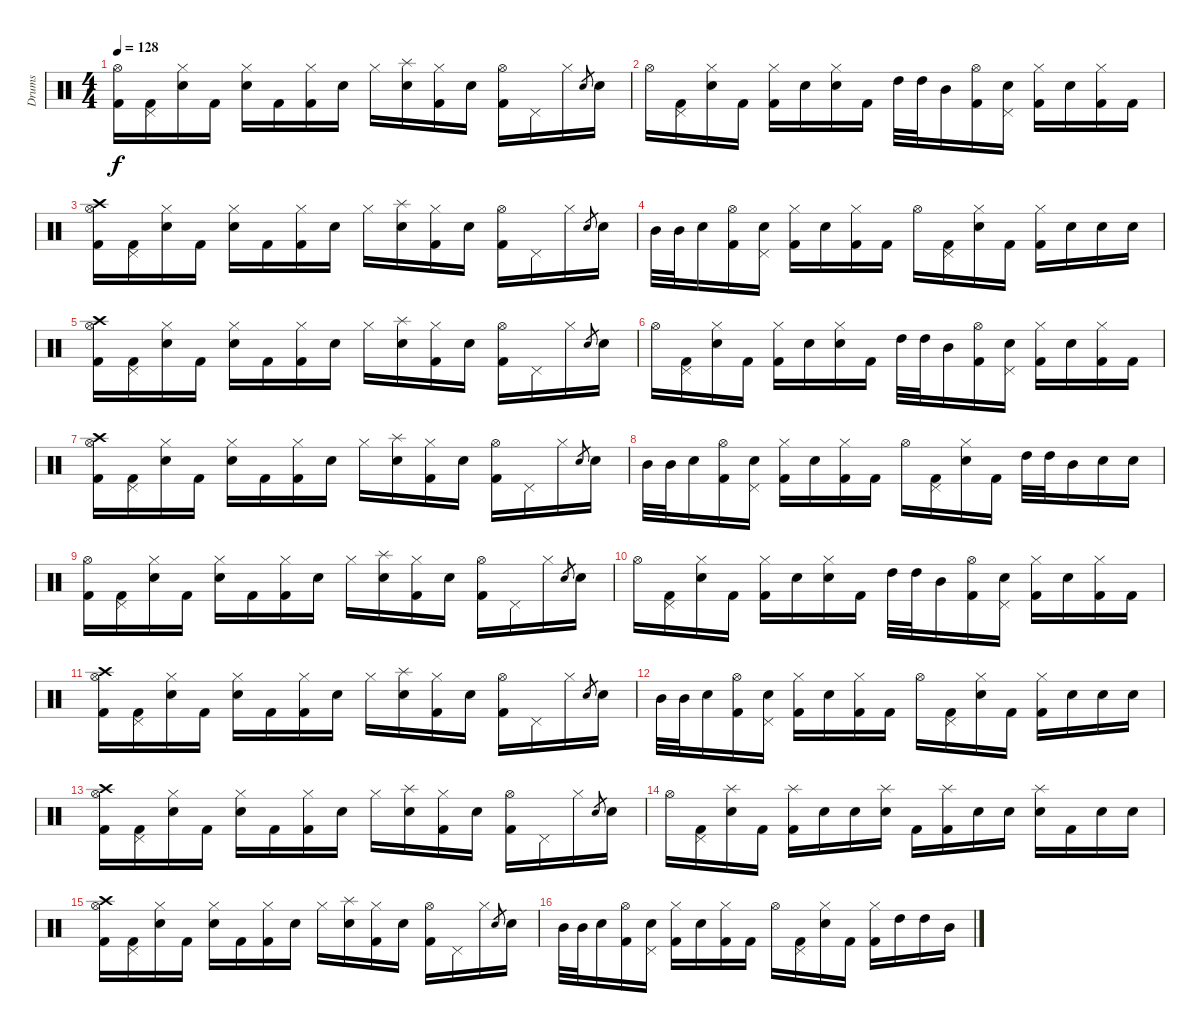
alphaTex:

\track ("Drums" "Drums") {instrument percussion}
\staff {score}
\articulation defaults
\ts (4 4)
\tempo 128
\clef neutral
\ks c
("Hi-Hat (open)" "Kick (hit) 2").16{dy f volume 3 balance 10} ("Pedal Hi-Hat (hit)" "Kick (hit) 2").16 ("Hi-Hat (closed)" "Electric Snare (hit)").16 "Kick (hit) 2".16 ("Hi-Hat (closed)" "Electric Snare (hit)").16 "Kick (hit) 2".16 ("Hi-Hat (closed)" "Kick (hit) 2").16 "Electric Snare (hit)".16 "Hi-Hat (closed)".16 ("Splash (hit)" "Electric Snare (hit)").16 ("Hi-Hat (closed)" "Kick (hit) 2").16{balance 3} "Electric Snare (hit)".16 ("Hi-Hat (open)" "Kick (hit) 2").16 "Pedal Hi-Hat (hit)".16 "Hi-Hat (closed)".16 "Electric Snare (hit)"{h}.8{gr} "Electric Snare (hit)".16 |
"Hi-Hat (open)".16{volume 1 balance 13} ("Pedal Hi-Hat (hit)" "Kick (hit) 2").16 ("Hi-Hat (closed)" "Electric Snare (hit)").16 "Kick (hit) 2".16 ("Hi-Hat (closed)" "Kick (hit) 2").16 "Electric Snare (hit)".16 ("Hi-Hat (closed)" "Electric Snare (hit)").16 "Kick (hit) 2".16 "High Tom (hit)".32 "High Tom (hit)".32 "Mid Tom (hit)".16 ("Hi-Hat (open)" "Kick (hit) 2").16 ("Pedal Hi-Hat (hit)" "Electric Snare (hit)").16 ("Hi-Hat (closed)" "Kick (hit) 2").16 "Electric Snare (hit)".16 ("Hi-Hat (closed)" "Kick (hit) 2").16 "Kick (hit) 2".16 |
("Crash high (hit)" "Hi-Hat (open)" "Kick (hit) 2").16{volume 4} ("Pedal Hi-Hat (hit)" "Kick (hit) 2").16 ("Hi-Hat (closed)" "Electric Snare (hit)").16 "Kick (hit) 2".16 ("Hi-Hat (closed)" "Electric Snare (hit)").16 "Kick (hit) 2".16 ("Hi-Hat (closed)" "Kick (hit) 2").16 "Electric Snare (hit)".16 "Hi-Hat (closed)".16{volume 4 balance 4} ("Splash (hit)" "Electric Snare (hit)").16 ("Hi-Hat (closed)" "Kick (hit) 2").16 "Electric Snare (hit)".16 ("Hi-Hat (open)" "Kick (hit) 2").16 "Pedal Hi-Hat (hit)".16 "Hi-Hat (closed)".16 "Electric Snare (hit)"{h}.8{gr} "Electric Snare (hit)".16 |
"Mid Tom (hit)".32 "Mid Tom (hit)".32 "Electric Snare (hit)".16 ("Hi-Hat (open)" "Kick (hit) 2").16 ("Pedal Hi-Hat (hit)" "Electric Snare (hit)").16 ("Hi-Hat (closed)" "Kick (hit) 2").16 "Electric Snare (hit)".16 ("Hi-Hat (closed)" "Kick (hit) 2").16 "Kick (hit) 2".16 "Hi-Hat (open)".16 ("Pedal Hi-Hat (hit)" "Kick (hit) 2").16 ("Hi-Hat (closed)" "Electric Snare (hit)").16 "Kick (hit) 2".16 ("Hi-Hat (closed)" "Kick (hit) 2").16{volume 4 balance 8} "Electric Snare (hit)".16 "Electric Snare (hit)".16 "Electric Snare (hit)".16 |
("Crash high (hit)" "Hi-Hat (open)" "Kick (hit) 2").16 ("Pedal Hi-Hat (hit)" "Kick (hit) 2").16 ("Hi-Hat (closed)" "Electric Snare (hit)").16 "Kick (hit) 2".16 ("Hi-Hat (closed)" "Electric Snare (hit)").16 "Kick (hit) 2".16 ("Hi-Hat (closed)" "Kick (hit) 2").16 "Electric Snare (hit)".16 "Hi-Hat (closed)".16 ("Splash (hit)" "Electric Snare (hit)").16{volume 1} ("Hi-Hat (closed)" "Kick (hit) 2").16 "Electric Snare (hit)".16 ("Hi-Hat (open)" "Kick (hit) 2").16 "Pedal Hi-Hat (hit)".16 "Hi-Hat (closed)".16 "Electric Snare (hit)"{h}.8{gr} "Electric Snare (hit)".16 |
"Hi-Hat (open)".16 ("Pedal Hi-Hat (hit)" "Kick (hit) 2").16 ("Hi-Hat (closed)" "Electric Snare (hit)").16{volume 3 balance 13} "Kick (hit) 2".16 ("Hi-Hat (closed)" "Kick (hit) 2").16 "Electric Snare (hit)".16 ("Hi-Hat (closed)" "Electric Snare (hit)").16 "Kick (hit) 2".16 "High Tom (hit)".32 "High Tom (hit)".32 "Mid Tom (hit)".16 ("Hi-Hat (open)" "Kick (hit) 2").16{volume 0 balance 2} ("Pedal Hi-Hat (hit)" "Electric Snare (hit)").16 ("Hi-Hat (closed)" "Kick (hit) 2").16 "Electric Snare (hit)".16 ("Hi-Hat (closed)" "Kick (hit) 2").16 "Kick (hit) 2".16 |
("Crash high (hit)" "Hi-Hat (open)" "Kick (hit) 2").16 ("Pedal Hi-Hat (hit)" "Kick (hit) 2").16 ("Hi-Hat (closed)" "Electric Snare (hit)").16 "Kick (hit) 2".16 ("Hi-Hat (closed)" "Electric Snare (hit)").16 "Kick (hit) 2".16 ("Hi-Hat (closed)" "Kick (hit) 2").16 "Electric Snare (hit)".16 "Hi-Hat (closed)".16 ("Splash (hit)" "Electric Snare (hit)").16 ("Hi-Hat (closed)" "Kick (hit) 2").16 "Electric Snare (hit)".16 ("Hi-Hat (open)" "Kick (hit) 2").16 "Pedal Hi-Hat (hit)".16 "Hi-Hat (closed)".16 "Electric Snare (hit)"{h}.8{gr} "Electric Snare (hit)".16 |
"Mid Tom (hit)".32 "Mid Tom (hit)".32 "Electric Snare (hit)".16 ("Hi-Hat (open)" "Kick (hit) 2").16 ("Pedal Hi-Hat (hit)" "Electric Snare (hit)").16{volume 9 balance 8} ("Hi-Hat (closed)" "Kick (hit) 2").16 "Electric Snare (hit)".16 ("Hi-Hat (closed)" "Kick (hit) 2").16 "Kick (hit) 2".16 "Hi-Hat (open)".16 ("Pedal Hi-Hat (hit)" "Kick (hit) 2").16 ("Hi-Hat (closed)" "Electric Snare (hit)").16 "Kick (hit) 2".16 "High Tom (hit)".32 "High Tom (hit)".32 "Mid Tom (hit)".16 "Electric Snare (hit)".16 "Electric Snare (hit)".16 |
("Hi-Hat (open)" "Kick (hit) 2").16 ("Pedal Hi-Hat (hit)" "Kick (hit) 2").16 ("Hi-Hat (closed)" "Electric Snare (hit)").16 "Kick (hit) 2".16 ("Hi-Hat (closed)" "Electric Snare (hit)").16 "Kick (hit) 2".16 ("Hi-Hat (closed)" "Kick (hit) 2").16 "Electric Snare (hit)".16 "Hi-Hat (closed)".16 ("Splash (hit)" "Electric Snare (hit)").16 ("Hi-Hat (closed)" "Kick (hit) 2").16 "Electric Snare (hit)".16 ("Hi-Hat (open)" "Kick (hit) 2").16 "Pedal Hi-Hat (hit)".16 "Hi-Hat (closed)".16 "Electric Snare (hit)"{h}.8{gr} "Electric Snare (hit)".16 |
"Hi-Hat (open)".16 ("Pedal Hi-Hat (hit)" "Kick (hit) 2").16 ("Hi-Hat (closed)" "Electric Snare (hit)").16 "Kick (hit) 2".16 ("Hi-Hat (closed)" "Kick (hit) 2").16 "Electric Snare (hit)".16 ("Hi-Hat (closed)" "Electric Snare (hit)").16 "Kick (hit) 2".16 "High Tom (hit)".32 "High Tom (hit)".32 "Mid Tom (hit)".16 ("Hi-Hat (open)" "Kick (hit) 2").16 ("Pedal Hi-Hat (hit)" "Electric Snare (hit)").16 ("Hi-Hat (closed)" "Kick (hit) 2").16 "Electric Snare (hit)".16 ("Hi-Hat (closed)" "Kick (hit) 2").16 "Kick (hit) 2".16 |
("Crash high (hit)" "Hi-Hat (open)" "Kick (hit) 2").16 ("Pedal Hi-Hat (hit)" "Kick (hit) 2").16 ("Hi-Hat (closed)" "Electric Snare (hit)").16 "Kick (hit) 2".16 ("Hi-Hat (closed)" "Electric Snare (hit)").16 "Kick (hit) 2".16 ("Hi-Hat (closed)" "Kick (hit) 2").16 "Electric Snare (hit)".16 "Hi-Hat (closed)".16 ("Splash (hit)" "Electric Snare (hit)").16 ("Hi-Hat (closed)" "Kick (hit) 2").16 "Electric Snare (hit)".16 ("Hi-Hat (open)" "Kick (hit) 2").16 "Pedal Hi-Hat (hit)".16 "Hi-Hat (closed)".16 "Electric Snare (hit)"{h}.8{gr} "Electric Snare (hit)".16 |
"Mid Tom (hit)".32 "Mid Tom (hit)".32 "Electric Snare (hit)".16 ("Hi-Hat (open)" "Kick (hit) 2").16 ("Pedal Hi-Hat (hit)" "Electric Snare (hit)").16 ("Hi-Hat (closed)" "Kick (hit) 2").16 "Electric Snare (hit)".16 ("Hi-Hat (closed)" "Kick (hit) 2").16 "Kick (hit) 2".16 "Hi-Hat (open)".16 ("Pedal Hi-Hat (hit)" "Kick (hit) 2").16 ("Hi-Hat (closed)" "Electric Snare (hit)").16 "Kick (hit) 2".16 ("Hi-Hat (closed)" "Kick (hit) 2").16 "Electric Snare (hit)".16 "Electric Snare (hit)".16 "Electric Snare (hit)".16 |
("Crash high (hit)" "Hi-Hat (open)" "Kick (hit) 2").16 ("Pedal Hi-Hat (hit)" "Kick (hit) 2").16 ("Hi-Hat (closed)" "Electric Snare (hit)").16 "Kick (hit) 2".16 ("Hi-Hat (closed)" "Electric Snare (hit)").16 "Kick (hit) 2".16 ("Hi-Hat (closed)" "Kick (hit) 2").16 "Electric Snare (hit)".16 "Hi-Hat (closed)".16 ("Splash (hit)" "Electric Snare (hit)").16 ("Hi-Hat (closed)" "Kick (hit) 2").16 "Electric Snare (hit)".16 ("Hi-Hat (open)" "Kick (hit) 2").16 "Pedal Hi-Hat (hit)".16 "Hi-Hat (closed)".16 "Electric Snare (hit)"{h}.8{gr} "Electric Snare (hit)".16 |
"Hi-Hat (open)".16 ("Pedal Hi-Hat (hit)" "Kick (hit) 2").16 ("Splash (hit)" "Electric Snare (hit)").16 "Kick (hit) 2".16 ("Splash (hit)" "Kick (hit) 2").16 "Electric Snare (hit)".16 "Electric Snare (hit)".16 ("Splash (hit)" "Electric Snare (hit)").16 "Kick (hit) 2".16 ("Splash (hit)" "Kick (hit) 2").16 "Electric Snare (hit)".16 "Electric Snare (hit)".16 ("Splash (hit)" "Electric Snare (hit)").16 "Kick (hit) 2".16 "Electric Snare (hit)".16 "Electric Snare (hit)".16 |
("Crash high (hit)" "Hi-Hat (open)" "Kick (hit) 2").16 ("Pedal Hi-Hat (hit)" "Kick (hit) 2").16 ("Hi-Hat (closed)" "Electric Snare (hit)").16 "Kick (hit) 2".16 ("Hi-Hat (closed)" "Electric Snare (hit)").16 "Kick (hit) 2".16 ("Hi-Hat (closed)" "Kick (hit) 2").16 "Electric Snare (hit)".16 "Hi-Hat (closed)".16 ("Splash (hit)" "Electric Snare (hit)").16 ("Hi-Hat (closed)" "Kick (hit) 2").16 "Electric Snare (hit)".16 ("Hi-Hat (open)" "Kick (hit) 2").16 "Pedal Hi-Hat (hit)".16 "Hi-Hat (closed)".16 "Electric Snare (hit)"{h}.8{gr} "Electric Snare (hit)".16 |
"Mid Tom (hit)".32 "Mid Tom (hit)".32 "Electric Snare (hit)".16 ("Hi-Hat (open)" "Kick (hit) 2").16 ("Pedal Hi-Hat (hit)" "Electric Snare (hit)").16 ("Hi-Hat (closed)" "Kick (hit) 2").16 "Electric Snare (hit)".16 ("Hi-Hat (closed)" "Kick (hit) 2").16 "Kick (hit) 2".16 "Hi-Hat (open)".16 ("Pedal Hi-Hat (hit)" "Kick (hit) 2").16 ("Hi-Hat (closed)" "Electric Snare (hit)").16 "Kick (hit) 2".16 ("Hi-Hat (closed)" "Kick (hit) 2").16 "High Tom (hit)".16 "High Tom (hit)".16 "Mid Tom (hit)".16
